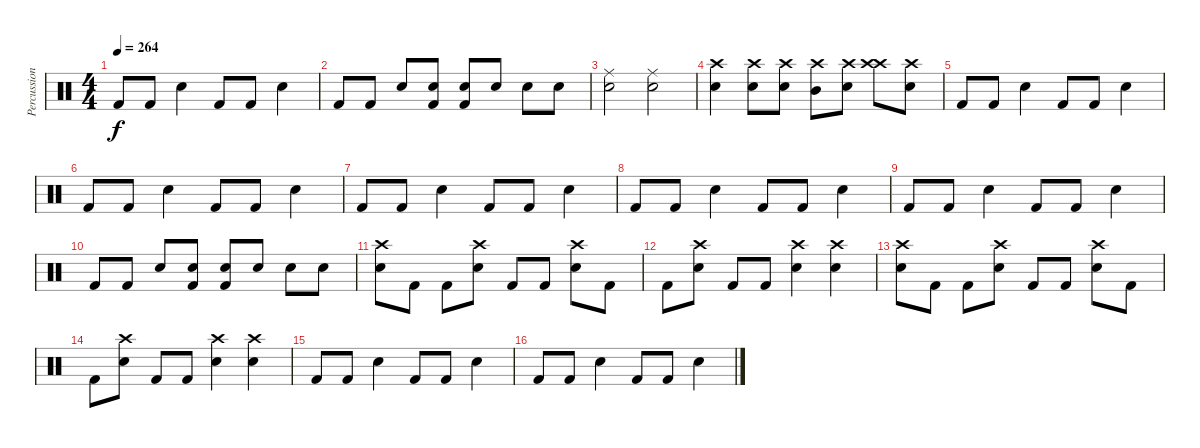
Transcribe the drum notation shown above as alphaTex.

\track ("Percussion" "Percussion") {instrument percussion}
\staff {score}
\articulation defaults
\ts (4 4)
\tempo 264
\clef neutral
\ks c "Kick (hit) 2".8{dy f} "Kick (hit) 2".8 "Snare (hit) 2".4 "Kick (hit) 2".8 "Kick (hit) 2".8 "Snare (hit) 2".4
|
"Kick (hit) 2".8 "Kick (hit) 2".8 "Snare (hit) 2".8 ("Kick (hit) 2" "Snare (hit) 2").8 ("Kick (hit) 2" "Snare (hit) 2").8 "Snare (hit) 2".8 "Snare (hit) 2".8 "Snare (hit) 2".8 |
("Ride (middle)" "Snare (hit) 2").2 ("Ride (middle)" "Snare (hit) 2").2 |
("Crash high (hit)" "Snare (hit) 2").4 ("Crash high (hit)" "Snare (hit) 2").8 ("Crash high (hit)" "Snare (hit) 2").8 ("Crash high (hit)" "Mid Tom (hit)").8 ("Crash high (hit)" "Snare (hit) 2").8 ("Crash high (hit)" "Crash high (hit)").8 ("Crash high (hit)" "Snare (hit) 2").8 |
"Kick (hit) 2".8 "Kick (hit) 2".8 "Snare (hit) 2".4 "Kick (hit) 2".8 "Kick (hit) 2".8 "Snare (hit) 2".4 |
"Kick (hit) 2".8 "Kick (hit) 2".8 "Snare (hit) 2".4 "Kick (hit) 2".8 "Kick (hit) 2".8 "Snare (hit) 2".4 |
"Kick (hit) 2".8 "Kick (hit) 2".8 "Snare (hit) 2".4 "Kick (hit) 2".8 "Kick (hit) 2".8 "Snare (hit) 2".4 |
"Kick (hit) 2".8 "Kick (hit) 2".8 "Snare (hit) 2".4 "Kick (hit) 2".8 "Kick (hit) 2".8 "Snare (hit) 2".4 |
"Kick (hit) 2".8 "Kick (hit) 2".8 "Snare (hit) 2".4 "Kick (hit) 2".8 "Kick (hit) 2".8 "Snare (hit) 2".4 |
"Kick (hit) 2".8 "Kick (hit) 2".8 "Snare (hit) 2".8 ("Kick (hit) 2" "Snare (hit) 2").8 ("Kick (hit) 2" "Snare (hit) 2").8 "Snare (hit) 2".8 "Snare (hit) 2".8 "Snare (hit) 2".8 |
("Crash high (hit)" "Snare (hit) 2").8 "Kick (hit) 2".8 "Kick (hit) 2".8 ("Crash high (hit)" "Snare (hit) 2").8 "Kick (hit) 2".8 "Kick (hit) 2".8 ("Crash high (hit)" "Snare (hit) 2").8 "Kick (hit) 2".8 |
"Kick (hit) 2".8 ("Crash high (hit)" "Snare (hit) 2").8 "Kick (hit) 2".8 "Kick (hit) 2".8 ("Crash high (hit)" "Snare (hit) 2").4 ("Crash high (hit)" "Snare (hit) 2").4 |
("Crash high (hit)" "Snare (hit) 2").8 "Kick (hit) 2".8 "Kick (hit) 2".8 ("Crash high (hit)" "Snare (hit) 2").8 "Kick (hit) 2".8 "Kick (hit) 2".8 ("Crash high (hit)" "Snare (hit) 2").8 "Kick (hit) 2".8 |
"Kick (hit) 2".8 ("Crash high (hit)" "Snare (hit) 2").8 "Kick (hit) 2".8 "Kick (hit) 2".8 ("Crash high (hit)" "Snare (hit) 2").4 ("Crash high (hit)" "Snare (hit) 2").4 |
"Kick (hit) 2".8 "Kick (hit) 2".8 "Snare (hit) 2".4 "Kick (hit) 2".8 "Kick (hit) 2".8 "Snare (hit) 2".4 |
"Kick (hit) 2".8 "Kick (hit) 2".8 "Snare (hit) 2".4 "Kick (hit) 2".8 "Kick (hit) 2".8 "Snare (hit) 2".4
